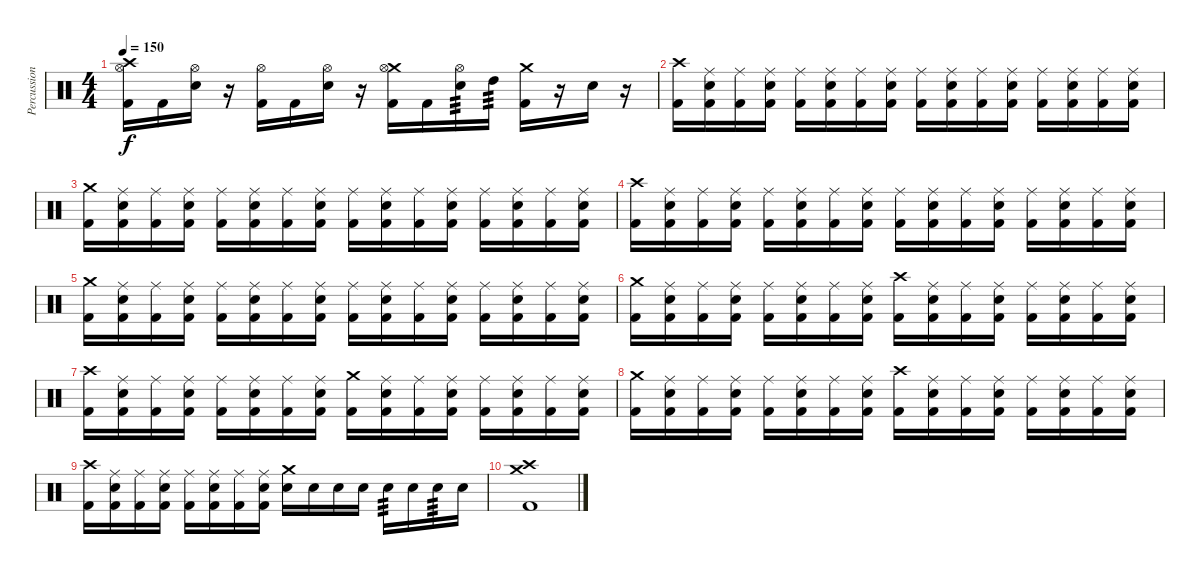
\track ("Percussion" "Percussion") {instrument percussion}
\staff {score}
\articulation defaults
\ts (4 4)
\tempo 150
\clef neutral
\ks c
("Crash high (hit)" "Hi-Hat (open)" "Kick (hit) 2").16{dy f} "Kick (hit) 2".16 ("Hi-Hat (open)" "Electric Snare (hit)").16 r.16 ("Hi-Hat (open)" "Kick (hit) 2").16 "Kick (hit) 2".16 ("Hi-Hat (open)" "Electric Snare (hit)").16 r.16 ("Crash medium (hit)" "Hi-Hat (open)" "Kick (hit) 2").16 "Kick (hit) 2".16 ("Hi-Hat (open)" "Electric Snare (hit)").16{tp 3} "High Tom (hit)".16{tp 3} ("Crash medium (hit)" "Kick (hit) 2").16 r.16 "Snare (hit) 2".16 r.16 |
("Crash high (hit)" "Kick (hit) 2").16 ("Ride (middle)" "Electric Snare (hit)" "Kick (hit) 2").16 ("Ride (middle)" "Kick (hit) 2").16 ("Ride (middle)" "Electric Snare (hit)" "Kick (hit) 2").16 ("Ride (middle)" "Kick (hit) 2").16 ("Ride (middle)" "Electric Snare (hit)" "Kick (hit) 2").16 ("Ride (middle)" "Kick (hit) 2").16 ("Ride (middle)" "Electric Snare (hit)" "Kick (hit) 2").16 ("Ride (middle)" "Kick (hit) 2").16 ("Ride (middle)" "Electric Snare (hit)" "Kick (hit) 2").16 ("Ride (middle)" "Kick (hit) 2").16 ("Ride (middle)" "Electric Snare (hit)" "Kick (hit) 2").16 ("Ride (middle)" "Kick (hit) 2").16 ("Ride (middle)" "Electric Snare (hit)" "Kick (hit) 2").16 ("Ride (middle)" "Kick (hit) 2").16 ("Ride (middle)" "Electric Snare (hit)" "Kick (hit) 2").16 |
("Crash medium (hit)" "Kick (hit) 2").16 ("Ride (middle)" "Electric Snare (hit)" "Kick (hit) 2").16 ("Ride (middle)" "Kick (hit) 2").16 ("Ride (middle)" "Electric Snare (hit)" "Kick (hit) 2").16 ("Ride (middle)" "Kick (hit) 2").16 ("Ride (middle)" "Electric Snare (hit)" "Kick (hit) 2").16 ("Ride (middle)" "Kick (hit) 2").16 ("Ride (middle)" "Electric Snare (hit)" "Kick (hit) 2").16 ("Ride (middle)" "Kick (hit) 2").16 ("Ride (middle)" "Electric Snare (hit)" "Kick (hit) 2").16 ("Ride (middle)" "Kick (hit) 2").16 ("Ride (middle)" "Electric Snare (hit)" "Kick (hit) 2").16 ("Ride (middle)" "Kick (hit) 2").16 ("Ride (middle)" "Electric Snare (hit)" "Kick (hit) 2").16 ("Ride (middle)" "Kick (hit) 2").16 ("Ride (middle)" "Electric Snare (hit)" "Kick (hit) 2").16 |
("Crash high (hit)" "Kick (hit) 2").16 ("Ride (middle)" "Electric Snare (hit)" "Kick (hit) 2").16 ("Ride (middle)" "Kick (hit) 2").16 ("Ride (middle)" "Electric Snare (hit)" "Kick (hit) 2").16 ("Ride (middle)" "Kick (hit) 2").16 ("Ride (middle)" "Electric Snare (hit)" "Kick (hit) 2").16 ("Ride (middle)" "Kick (hit) 2").16 ("Ride (middle)" "Electric Snare (hit)" "Kick (hit) 2").16 ("Ride (middle)" "Kick (hit) 2").16 ("Ride (middle)" "Electric Snare (hit)" "Kick (hit) 2").16 ("Ride (middle)" "Kick (hit) 2").16 ("Ride (middle)" "Electric Snare (hit)" "Kick (hit) 2").16 ("Ride (middle)" "Kick (hit) 2").16 ("Ride (middle)" "Electric Snare (hit)" "Kick (hit) 2").16 ("Ride (middle)" "Kick (hit) 2").16 ("Ride (middle)" "Electric Snare (hit)" "Kick (hit) 2").16 |
("Crash medium (hit)" "Kick (hit) 2").16 ("Ride (middle)" "Electric Snare (hit)" "Kick (hit) 2").16 ("Ride (middle)" "Kick (hit) 2").16 ("Ride (middle)" "Electric Snare (hit)" "Kick (hit) 2").16 ("Ride (middle)" "Kick (hit) 2").16 ("Ride (middle)" "Electric Snare (hit)" "Kick (hit) 2").16 ("Ride (middle)" "Kick (hit) 2").16 ("Ride (middle)" "Electric Snare (hit)" "Kick (hit) 2").16 ("Ride (middle)" "Kick (hit) 2").16 ("Ride (middle)" "Electric Snare (hit)" "Kick (hit) 2").16 ("Ride (middle)" "Kick (hit) 2").16 ("Ride (middle)" "Electric Snare (hit)" "Kick (hit) 2").16 ("Ride (middle)" "Kick (hit) 2").16 ("Ride (middle)" "Electric Snare (hit)" "Kick (hit) 2").16 ("Ride (middle)" "Kick (hit) 2").16 ("Ride (middle)" "Electric Snare (hit)" "Kick (hit) 2").16 |
("Crash medium (hit)" "Kick (hit) 2").16 ("Ride (middle)" "Electric Snare (hit)" "Kick (hit) 2").16 ("Ride (middle)" "Kick (hit) 2").16 ("Ride (middle)" "Electric Snare (hit)" "Kick (hit) 2").16 ("Ride (middle)" "Kick (hit) 2").16 ("Ride (middle)" "Electric Snare (hit)" "Kick (hit) 2").16 ("Ride (middle)" "Kick (hit) 2").16 ("Ride (middle)" "Electric Snare (hit)" "Kick (hit) 2").16 ("Crash high (hit)" "Kick (hit) 2").16 ("Ride (middle)" "Electric Snare (hit)" "Kick (hit) 2").16 ("Ride (middle)" "Kick (hit) 2").16 ("Ride (middle)" "Electric Snare (hit)" "Kick (hit) 2").16 ("Ride (middle)" "Kick (hit) 2").16 ("Ride (middle)" "Electric Snare (hit)" "Kick (hit) 2").16 ("Ride (middle)" "Kick (hit) 2").16 ("Ride (middle)" "Electric Snare (hit)" "Kick (hit) 2").16 |
("Crash high (hit)" "Kick (hit) 2").16 ("Ride (middle)" "Electric Snare (hit)" "Kick (hit) 2").16 ("Ride (middle)" "Kick (hit) 2").16 ("Ride (middle)" "Electric Snare (hit)" "Kick (hit) 2").16 ("Ride (middle)" "Kick (hit) 2").16 ("Ride (middle)" "Electric Snare (hit)" "Kick (hit) 2").16 ("Ride (middle)" "Kick (hit) 2").16 ("Ride (middle)" "Electric Snare (hit)" "Kick (hit) 2").16 ("Crash medium (hit)" "Kick (hit) 2").16 ("Ride (middle)" "Electric Snare (hit)" "Kick (hit) 2").16 ("Ride (middle)" "Kick (hit) 2").16 ("Ride (middle)" "Electric Snare (hit)" "Kick (hit) 2").16 ("Ride (middle)" "Kick (hit) 2").16 ("Ride (middle)" "Electric Snare (hit)" "Kick (hit) 2").16 ("Ride (middle)" "Kick (hit) 2").16 ("Ride (middle)" "Electric Snare (hit)" "Kick (hit) 2").16 |
("Crash medium (hit)" "Kick (hit) 2").16 ("Ride (middle)" "Electric Snare (hit)" "Kick (hit) 2").16 ("Ride (middle)" "Kick (hit) 2").16 ("Ride (middle)" "Electric Snare (hit)" "Kick (hit) 2").16 ("Ride (middle)" "Kick (hit) 2").16 ("Ride (middle)" "Electric Snare (hit)" "Kick (hit) 2").16 ("Ride (middle)" "Kick (hit) 2").16 ("Ride (middle)" "Electric Snare (hit)" "Kick (hit) 2").16 ("Crash high (hit)" "Kick (hit) 2").16 ("Ride (middle)" "Electric Snare (hit)" "Kick (hit) 2").16 ("Ride (middle)" "Kick (hit) 2").16 ("Ride (middle)" "Electric Snare (hit)" "Kick (hit) 2").16 ("Ride (middle)" "Kick (hit) 2").16 ("Ride (middle)" "Electric Snare (hit)" "Kick (hit) 2").16 ("Ride (middle)" "Kick (hit) 2").16 ("Ride (middle)" "Electric Snare (hit)" "Kick (hit) 2").16 |
("Crash high (hit)" "Kick (hit) 2").16 ("Ride (middle)" "Electric Snare (hit)" "Kick (hit) 2").16 ("Ride (middle)" "Kick (hit) 2").16 ("Ride (middle)" "Electric Snare (hit)" "Kick (hit) 2").16 ("Ride (middle)" "Kick (hit) 2").16 ("Ride (middle)" "Electric Snare (hit)" "Kick (hit) 2").16 ("Ride (middle)" "Kick (hit) 2").16 ("Ride (middle)" "Electric Snare (hit)" "Kick (hit) 2").16 ("Crash medium (hit)" "Electric Snare (hit)").16 "Electric Snare (hit)".16 "Electric Snare (hit)".16 "Electric Snare (hit)".16 "Electric Snare (hit)".16{tp 3} "Electric Snare (hit)".16 "Electric Snare (hit)".16{tp 3} "Electric Snare (hit)".16 |
("Crash high (hit)" "Crash medium (hit)" "Kick (hit) 2").1
